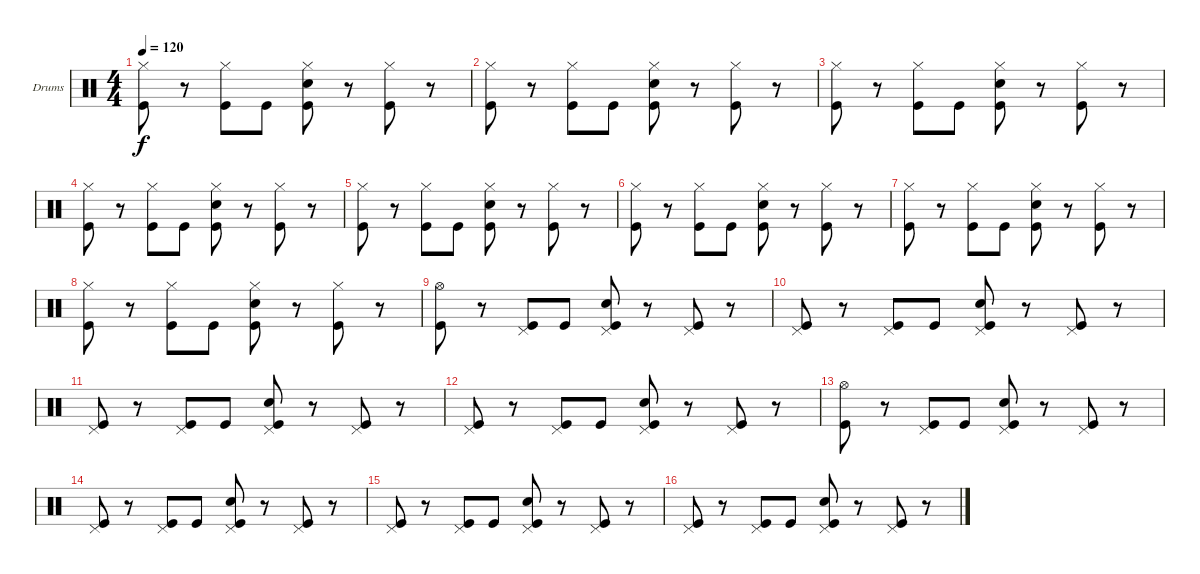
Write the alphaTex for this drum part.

\defaultSystemsLayout 4
\bracketExtendMode groupsimilarinstruments
\firstSystemTrackNameOrientation horizontal
\otherSystemsTrackNameOrientation horizontal
\track ("Drumkit" "Drums") {instrument percussion}
\staff {score}
\articulation defaults
\ts (4 4)
\tempo 120
\clef neutral
\scale
0.333333
\ks c
("Hi-Hat (closed)" "Kick (hit)").8{dy f} r.8 ("Hi-Hat (closed)" "Kick (hit)").8 "Kick (hit)".8 ("Hi-Hat (closed)" "Kick (hit)" "Snare (hit) 2").8 r.8 ("Hi-Hat (closed)" "Kick (hit)").8 r.8 |
\scale
0.333333 ("Hi-Hat (closed)" "Kick (hit)").8 r.8 ("Hi-Hat (closed)" "Kick (hit)").8 "Kick (hit)".8 ("Hi-Hat (closed)" "Kick (hit)" "Snare (hit) 2").8 r.8 ("Hi-Hat (closed)" "Kick (hit)").8 r.8 |
\scale
0.333333 ("Hi-Hat (closed)" "Kick (hit)").8 r.8 ("Hi-Hat (closed)" "Kick (hit)").8 "Kick (hit)".8 ("Hi-Hat (closed)" "Kick (hit)" "Snare (hit) 2").8 r.8 ("Hi-Hat (closed)" "Kick (hit)").8 r.8 |
\scale
0.333333 ("Hi-Hat (closed)" "Kick (hit)").8 r.8 ("Hi-Hat (closed)" "Kick (hit)").8 "Kick (hit)".8 ("Hi-Hat (closed)" "Kick (hit)" "Snare (hit) 2").8 r.8 ("Hi-Hat (closed)" "Kick (hit)").8 r.8 |
\scale
0.333333 ("Hi-Hat (closed)" "Kick (hit)").8 r.8 ("Hi-Hat (closed)" "Kick (hit)").8 "Kick (hit)".8 ("Hi-Hat (closed)" "Kick (hit)" "Snare (hit) 2").8 r.8 ("Hi-Hat (closed)" "Kick (hit)").8 r.8 |
\scale
0.333333 ("Hi-Hat (closed)" "Kick (hit)").8 r.8 ("Hi-Hat (closed)" "Kick (hit)").8 "Kick (hit)".8 ("Hi-Hat (closed)" "Kick (hit)" "Snare (hit) 2").8 r.8 ("Hi-Hat (closed)" "Kick (hit)").8 r.8 |
\scale
0.333333 ("Hi-Hat (closed)" "Kick (hit)").8 r.8 ("Hi-Hat (closed)" "Kick (hit)").8 "Kick (hit)".8 ("Hi-Hat (closed)" "Kick (hit)" "Snare (hit) 2").8 r.8 ("Hi-Hat (closed)" "Kick (hit)").8 r.8 |
\scale
0.333333 ("Hi-Hat (closed)" "Kick (hit)").8 r.8 ("Hi-Hat (closed)" "Kick (hit)").8 "Kick (hit)".8 ("Hi-Hat (closed)" "Kick (hit)" "Snare (hit) 2").8 r.8 ("Hi-Hat (closed)" "Kick (hit)").8 r.8 |
\scale
0.333333 ("Hi-Hat (open)" "Kick (hit)").8 r.8 ("Pedal Hi-Hat (hit)" "Kick (hit)").8 "Kick (hit)".8 ("Pedal Hi-Hat (hit)" "Kick (hit)" "Snare (hit) 2").8 r.8 ("Pedal Hi-Hat (hit)" "Kick (hit)").8 r.8 |
\scale
0.333333 ("Pedal Hi-Hat (hit)" "Kick (hit)").8 r.8 ("Pedal Hi-Hat (hit)" "Kick (hit)").8 "Kick (hit)".8 ("Pedal Hi-Hat (hit)" "Kick (hit)" "Snare (hit) 2").8 r.8 ("Pedal Hi-Hat (hit)" "Kick (hit)").8 r.8 |
\scale
0.333333 ("Pedal Hi-Hat (hit)" "Kick (hit)").8 r.8 ("Pedal Hi-Hat (hit)" "Kick (hit)").8 "Kick (hit)".8 ("Pedal Hi-Hat (hit)" "Kick (hit)" "Snare (hit) 2").8 r.8 ("Pedal Hi-Hat (hit)" "Kick (hit)").8 r.8 |
\scale
0.333333 ("Pedal Hi-Hat (hit)" "Kick (hit)").8 r.8 ("Pedal Hi-Hat (hit)" "Kick (hit)").8 "Kick (hit)".8 ("Pedal Hi-Hat (hit)" "Kick (hit)" "Snare (hit) 2").8 r.8 ("Pedal Hi-Hat (hit)" "Kick (hit)").8 r.8 |
\scale
0.333333 ("Hi-Hat (open)" "Kick (hit)").8 r.8 ("Pedal Hi-Hat (hit)" "Kick (hit)").8 "Kick (hit)".8 ("Pedal Hi-Hat (hit)" "Kick (hit)" "Snare (hit) 2").8 r.8 ("Pedal Hi-Hat (hit)" "Kick (hit)").8 r.8 |
\scale
0.333333 ("Pedal Hi-Hat (hit)" "Kick (hit)").8 r.8 ("Pedal Hi-Hat (hit)" "Kick (hit)").8 "Kick (hit)".8 ("Pedal Hi-Hat (hit)" "Kick (hit)" "Snare (hit) 2").8 r.8 ("Pedal Hi-Hat (hit)" "Kick (hit)").8 r.8 |
\scale
0.333333 ("Pedal Hi-Hat (hit)" "Kick (hit)").8 r.8 ("Pedal Hi-Hat (hit)" "Kick (hit)").8 "Kick (hit)".8 ("Pedal Hi-Hat (hit)" "Kick (hit)" "Snare (hit) 2").8 r.8 ("Pedal Hi-Hat (hit)" "Kick (hit)").8 r.8 |
\scale
0.333333 ("Pedal Hi-Hat (hit)" "Kick (hit)").8 r.8 ("Pedal Hi-Hat (hit)" "Kick (hit)").8 "Kick (hit)".8 ("Pedal Hi-Hat (hit)" "Kick (hit)" "Snare (hit) 2").8 r.8 ("Pedal Hi-Hat (hit)" "Kick (hit)").8 r.8
